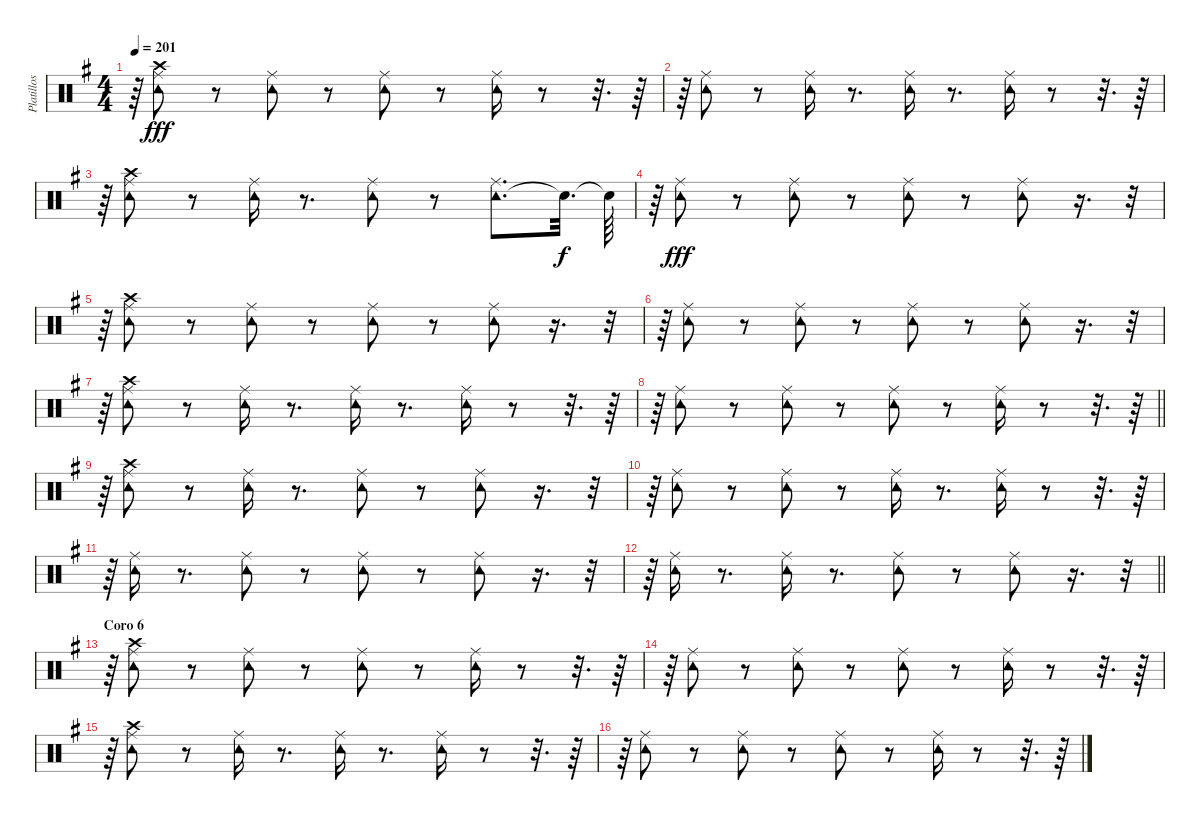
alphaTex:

\track ("Platillos y pandero" "Platillos ") {instrument percussion}
\staff {score}
\articulation defaults
\ts (4 4)
\tempo 201
\clef neutral
\ks g
r.64{dy fff} ("Crash high (hit)" "Ride (middle)" "Tambourine (hit)").8 r.8 ("Ride (middle)" "Tambourine (hit)").8 r.8 ("Ride (middle)" "Tambourine (hit)").8 r.8 ("Ride (middle)" "Tambourine (hit)").16 r.8 r.32{d} r.64 |
r.64 ("Ride (middle)" "Tambourine (hit)").8 r.8 ("Ride (middle)" "Tambourine (hit)").16 r.8{d} ("Tambourine (hit)" "Ride (middle)").16 r.8{d} ("Tambourine (hit)" "Ride (middle)").16 r.8 r.32{d} r.64 |
r.64 ("Tambourine (hit)" "Crash high (hit)" "Ride (middle)").8 r.8 ("Ride (middle)" "Tambourine (hit)").16 r.8{d} ("Ride (middle)" "Tambourine (hit)").8 r.8 ("Tambourine (hit)" "Ride (middle)").8{d} "Snare (hit)"{t}.32{d dy f} "Snare (hit)"{t}.64 |
r.64 ("Tambourine (hit)" "Ride (middle)").8{dy fff} r.8 ("Ride (middle)" "Tambourine (hit)").8 r.8 ("Ride (middle)" "Tambourine (hit)").8 r.8 ("Ride (middle)" "Tambourine (hit)").8 r.16{d} r.32{tu (5 4)} |
r.64 ("Ride (middle)" "Crash high (hit)" "Tambourine (hit)").8 r.8 ("Ride (middle)" "Tambourine (hit)").8 r.8 ("Ride (middle)" "Tambourine (hit)").8 r.8 ("Ride (middle)" "Tambourine (hit)").8 r.16{d} r.32{tu (5 4)} |
r.64 ("Ride (middle)" "Tambourine (hit)").8 r.8 ("Ride (middle)" "Tambourine (hit)").8 r.8 ("Ride (middle)" "Tambourine (hit)").8 r.8 ("Ride (middle)" "Tambourine (hit)").8 r.16{d} r.32{tu (5 4)} |
r.64 ("Crash high (hit)" "Ride (middle)" "Tambourine (hit)").8 r.8 ("Tambourine (hit)" "Ride (middle)").16 r.8{d} ("Tambourine (hit)" "Ride (middle)").16 r.8{d} ("Tambourine (hit)" "Ride (middle)").16 r.8 r.32{d} r.64 |
\barLineRight lightlight
r.64 ("Ride (middle)" "Tambourine (hit)").8 r.8 ("Ride (middle)" "Tambourine (hit)").8 r.8 ("Ride (middle)" "Tambourine (hit)").8 r.8 ("Tambourine (hit)" "Ride (middle)").16 r.8 r.32{d} r.64 |
r.64 ("Tambourine (hit)" "Ride (middle)" "Crash high (hit)").8 r.8 ("Tambourine (hit)" "Ride (middle)").16 r.8{d} ("Ride (middle)" "Tambourine (hit)").8 r.8 ("Ride (middle)" "Tambourine (hit)").8 r.16{d} r.32{tu (5 4)} |
r.64 ("Ride (middle)" "Tambourine (hit)").8 r.8 ("Ride (middle)" "Tambourine (hit)").8 r.8 ("Ride (middle)" "Tambourine (hit)").16 r.8{d} ("Tambourine (hit)" "Ride (middle)").16 r.8 r.32{d} r.64 |
r.64 ("Tambourine (hit)" "Ride (middle)").16 r.8{d} ("Ride (middle)" "Tambourine (hit)").8 r.8 ("Tambourine (hit)" "Ride (middle)").8 r.8 ("Tambourine (hit)" "Ride (middle)").8 r.16{d} r.32{tu (5 4)} |
\barLineRight lightlight
r.64 ("Tambourine (hit)" "Ride (middle)").16 r.8{d} ("Tambourine (hit)" "Ride (middle)").16 r.8{d} ("Ride (middle)" "Tambourine (hit)").8 r.8 ("Ride (middle)" "Tambourine (hit)").8 r.16{d} r.32{tu (5 4)} |
\section ("" "Coro 6")
r.64 ("Ride (middle)" "Crash high (hit)" "Tambourine (hit)").8 r.8 ("Ride (middle)" "Tambourine (hit)").8 r.8 ("Ride (middle)" "Tambourine (hit)").8 r.8 ("Tambourine (hit)" "Ride (middle)").16 r.8 r.32{d} r.64 |
r.64 ("Ride (middle)" "Tambourine (hit)").8 r.8 ("Ride (middle)" "Tambourine (hit)").8 r.8 ("Ride (middle)" "Tambourine (hit)").8 r.8 ("Ride (middle)" "Tambourine (hit)").16 r.8 r.32{d} r.64 |
r.64 ("Crash high (hit)" "Ride (middle)" "Tambourine (hit)").8 r.8 ("Ride (middle)" "Tambourine (hit)").16 r.8{d} ("Tambourine (hit)" "Ride (middle)").16 r.8{d} ("Ride (middle)" "Tambourine (hit)").16 r.8 r.32{d} r.64 |
r.64 ("Tambourine (hit)" "Ride (middle)").8 r.8 ("Ride (middle)" "Tambourine (hit)").8 r.8 ("Ride (middle)" "Tambourine (hit)").8 r.8 ("Ride (middle)" "Tambourine (hit)").16 r.8 r.32{d} r.64
